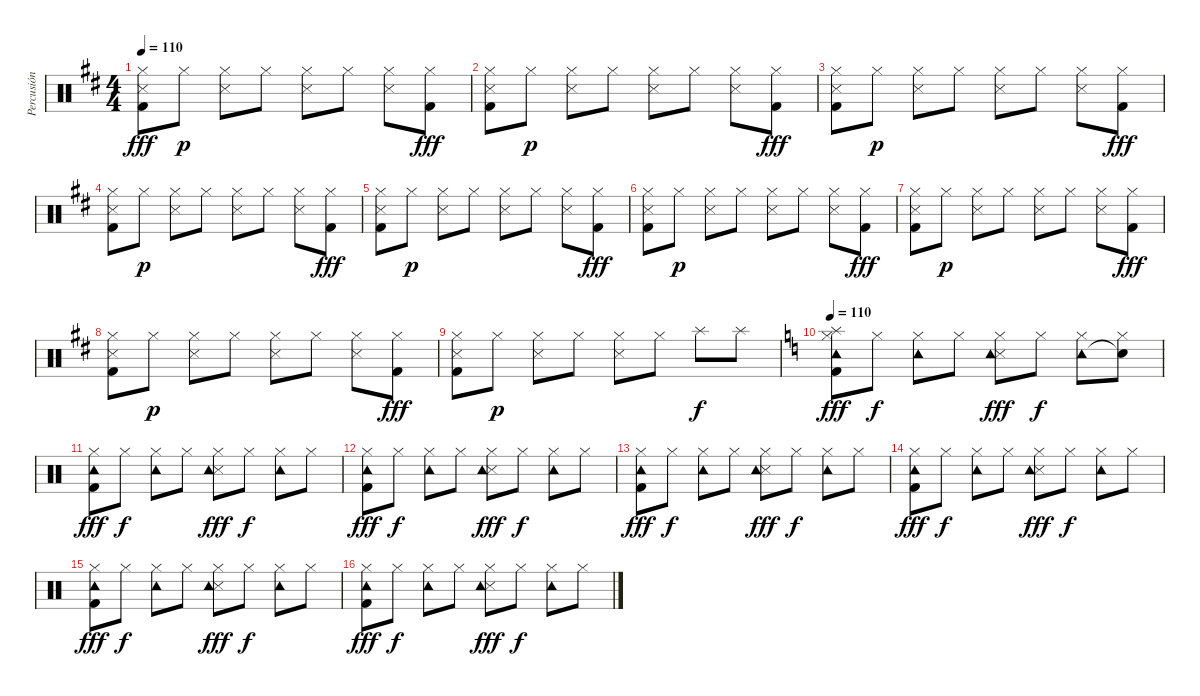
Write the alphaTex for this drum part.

\track ("Percusión" "Percusión") {instrument percussion}
\staff {score}
\articulation defaults
\ts (4 4)
\tempo 110
\clef neutral
\ks d
("Hi-Hat (closed)" "Snare (side stick) 3" "Kick (hit) 2").8{dy fff} "Hi-Hat (closed)".8{dy p} ("Hi-Hat (closed)" "Snare (side stick) 3").8 "Hi-Hat (closed)".8 ("Hi-Hat (closed)" "Snare (side stick) 3").8 "Hi-Hat (closed)".8 ("Hi-Hat (closed)" "Snare (side stick) 3").8 ("Hi-Hat (closed)" "Kick (hit) 2").8{dy fff} |
("Hi-Hat (closed)" "Snare (side stick) 3" "Kick (hit) 2").8 "Hi-Hat (closed)".8{dy p} ("Hi-Hat (closed)" "Snare (side stick) 3").8 "Hi-Hat (closed)".8 ("Hi-Hat (closed)" "Snare (side stick) 3").8 "Hi-Hat (closed)".8 ("Hi-Hat (closed)" "Snare (side stick) 3").8 ("Hi-Hat (closed)" "Kick (hit) 2").8{dy fff} |
("Hi-Hat (closed)" "Snare (side stick) 3" "Kick (hit) 2").8 "Hi-Hat (closed)".8{dy p} ("Hi-Hat (closed)" "Snare (side stick) 3").8 "Hi-Hat (closed)".8 ("Hi-Hat (closed)" "Snare (side stick) 3").8 "Hi-Hat (closed)".8 ("Hi-Hat (closed)" "Snare (side stick) 3").8 ("Hi-Hat (closed)" "Kick (hit) 2").8{dy fff} |
("Hi-Hat (closed)" "Snare (side stick) 3" "Kick (hit) 2").8 "Hi-Hat (closed)".8{dy p} ("Hi-Hat (closed)" "Snare (side stick) 3").8 "Hi-Hat (closed)".8 ("Hi-Hat (closed)" "Snare (side stick) 3").8 "Hi-Hat (closed)".8 ("Hi-Hat (closed)" "Snare (side stick) 3").8 ("Hi-Hat (closed)" "Kick (hit) 2").8{dy fff} |
("Hi-Hat (closed)" "Snare (side stick) 3" "Kick (hit) 2").8 "Hi-Hat (closed)".8{dy p} ("Hi-Hat (closed)" "Snare (side stick) 3").8 "Hi-Hat (closed)".8 ("Hi-Hat (closed)" "Snare (side stick) 3").8 "Hi-Hat (closed)".8 ("Hi-Hat (closed)" "Snare (side stick) 3").8 ("Hi-Hat (closed)" "Kick (hit) 2").8{dy fff} |
("Hi-Hat (closed)" "Snare (side stick) 3" "Kick (hit) 2").8 "Hi-Hat (closed)".8{dy p} ("Hi-Hat (closed)" "Snare (side stick) 3").8 "Hi-Hat (closed)".8 ("Hi-Hat (closed)" "Snare (side stick) 3").8 "Hi-Hat (closed)".8 ("Hi-Hat (closed)" "Snare (side stick) 3").8 ("Hi-Hat (closed)" "Kick (hit) 2").8{dy fff} |
("Hi-Hat (closed)" "Snare (side stick) 3" "Kick (hit) 2").8 "Hi-Hat (closed)".8{dy p} ("Hi-Hat (closed)" "Snare (side stick) 3").8 "Hi-Hat (closed)".8 ("Hi-Hat (closed)" "Snare (side stick) 3").8 "Hi-Hat (closed)".8 ("Hi-Hat (closed)" "Snare (side stick) 3").8 ("Hi-Hat (closed)" "Kick (hit) 2").8{dy fff} |
("Hi-Hat (closed)" "Snare (side stick) 3" "Kick (hit) 2").8 "Hi-Hat (closed)".8{dy p} ("Hi-Hat (closed)" "Snare (side stick) 3").8 "Hi-Hat (closed)".8 ("Hi-Hat (closed)" "Snare (side stick) 3").8 "Hi-Hat (closed)".8 ("Hi-Hat (closed)" "Snare (side stick) 3").8 ("Hi-Hat (closed)" "Kick (hit) 2").8{dy fff} |
("Hi-Hat (closed)" "Snare (side stick) 3" "Kick (hit) 2").8 "Hi-Hat (closed)".8{dy p} ("Hi-Hat (closed)" "Snare (side stick) 3").8 "Hi-Hat (closed)".8 ("Hi-Hat (closed)" "Snare (side stick) 3").8 "Hi-Hat (closed)".8 "Splash (hit)".8{dy f} "Splash (hit)".8 |
\tempo 110
\ks c
("Hi-Hat (closed)" "Splash (hit)" "Kick (hit) 2" "Tambourine (hit)").8{dy fff} "Hi-Hat (closed)".8{dy f} ("Hi-Hat (closed)" "Tambourine (hit)").8 "Hi-Hat (closed)".8 ("Hi-Hat (closed)" "Snare (side stick) 3" "Tambourine (hit)").8{dy fff} "Hi-Hat (closed)".8{dy f} ("Hi-Hat (closed)" "Tambourine (hit)").8 ("Hi-Hat (closed)" "Snare (hit)"{t}).8 |
("Hi-Hat (closed)" "Kick (hit) 2" "Tambourine (hit)").8{dy fff} "Hi-Hat (closed)".8{dy f} ("Hi-Hat (closed)" "Tambourine (hit)").8 "Hi-Hat (closed)".8 ("Hi-Hat (closed)" "Snare (side stick) 3" "Tambourine (hit)").8{dy fff} "Hi-Hat (closed)".8{dy f} ("Hi-Hat (closed)" "Tambourine (hit)").8 "Hi-Hat (closed)".8 |
("Hi-Hat (closed)" "Kick (hit) 2" "Tambourine (hit)").8{dy fff} "Hi-Hat (closed)".8{dy f} ("Hi-Hat (closed)" "Tambourine (hit)").8 "Hi-Hat (closed)".8 ("Hi-Hat (closed)" "Snare (side stick) 3" "Tambourine (hit)").8{dy fff} "Hi-Hat (closed)".8{dy f} ("Hi-Hat (closed)" "Tambourine (hit)").8 "Hi-Hat (closed)".8 |
("Hi-Hat (closed)" "Kick (hit) 2" "Tambourine (hit)").8{dy fff} "Hi-Hat (closed)".8{dy f} ("Hi-Hat (closed)" "Tambourine (hit)").8 "Hi-Hat (closed)".8 ("Hi-Hat (closed)" "Snare (side stick) 3" "Tambourine (hit)").8{dy fff} "Hi-Hat (closed)".8{dy f} ("Hi-Hat (closed)" "Tambourine (hit)").8 "Hi-Hat (closed)".8 |
("Hi-Hat (closed)" "Kick (hit) 2" "Tambourine (hit)").8{dy fff} "Hi-Hat (closed)".8{dy f} ("Hi-Hat (closed)" "Tambourine (hit)").8 "Hi-Hat (closed)".8 ("Hi-Hat (closed)" "Snare (side stick) 3" "Tambourine (hit)").8{dy fff} "Hi-Hat (closed)".8{dy f} ("Hi-Hat (closed)" "Tambourine (hit)").8 "Hi-Hat (closed)".8 |
("Hi-Hat (closed)" "Kick (hit) 2" "Tambourine (hit)").8{dy fff} "Hi-Hat (closed)".8{dy f} ("Hi-Hat (closed)" "Tambourine (hit)").8 "Hi-Hat (closed)".8 ("Hi-Hat (closed)" "Snare (side stick) 3" "Tambourine (hit)").8{dy fff} "Hi-Hat (closed)".8{dy f} ("Hi-Hat (closed)" "Tambourine (hit)").8 "Hi-Hat (closed)".8 |
("Hi-Hat (closed)" "Kick (hit) 2" "Tambourine (hit)").8{dy fff} "Hi-Hat (closed)".8{dy f} ("Hi-Hat (closed)" "Tambourine (hit)").8 "Hi-Hat (closed)".8 ("Hi-Hat (closed)" "Snare (side stick) 3" "Tambourine (hit)").8{dy fff} "Hi-Hat (closed)".8{dy f} ("Hi-Hat (closed)" "Tambourine (hit)").8 "Hi-Hat (closed)".8
